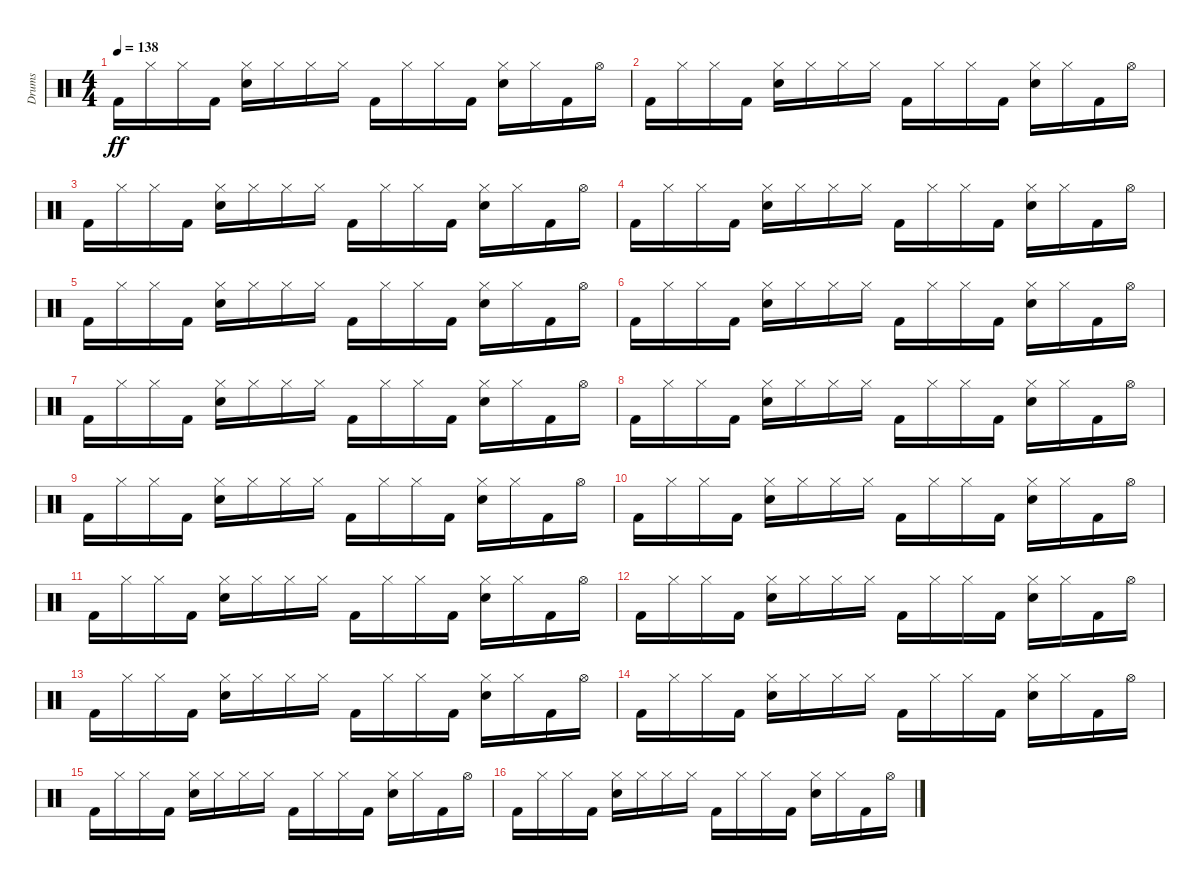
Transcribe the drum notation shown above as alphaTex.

\track ("Drums" "Drums") {instrument percussion}
\staff {score}
\articulation defaults
\ts (4 4)
\tempo 138
\clef neutral
\ks c "Kick (hit) 2".16{dy ff} "Hi-Hat (closed)".16 "Hi-Hat (closed)".16 "Kick (hit) 2".16
("Electric Snare (hit)" "Hi-Hat (closed)").16 "Hi-Hat (closed)".16 "Hi-Hat (closed)".16 "Hi-Hat (closed)".16 "Kick (hit) 2".16 "Hi-Hat (closed)".16 "Hi-Hat (closed)".16 "Kick (hit) 2".16 ("Electric Snare (hit)" "Hi-Hat (closed)").16 "Hi-Hat (closed)".16 "Kick (hit) 2".16 "Hi-Hat (open)".16 |
"Kick (hit) 2".16 "Hi-Hat (closed)".16 "Hi-Hat (closed)".16 "Kick (hit) 2".16 ("Electric Snare (hit)" "Hi-Hat (closed)").16 "Hi-Hat (closed)".16 "Hi-Hat (closed)".16 "Hi-Hat (closed)".16 "Kick (hit) 2".16 "Hi-Hat (closed)".16 "Hi-Hat (closed)".16 "Kick (hit) 2".16 ("Electric Snare (hit)" "Hi-Hat (closed)").16 "Hi-Hat (closed)".16 "Kick (hit) 2".16 "Hi-Hat (open)".16 |
"Kick (hit) 2".16 "Hi-Hat (closed)".16 "Hi-Hat (closed)".16 "Kick (hit) 2".16 ("Electric Snare (hit)" "Hi-Hat (closed)").16 "Hi-Hat (closed)".16 "Hi-Hat (closed)".16 "Hi-Hat (closed)".16 "Kick (hit) 2".16 "Hi-Hat (closed)".16 "Hi-Hat (closed)".16 "Kick (hit) 2".16 ("Electric Snare (hit)" "Hi-Hat (closed)").16 "Hi-Hat (closed)".16 "Kick (hit) 2".16 "Hi-Hat (open)".16 |
"Kick (hit) 2".16 "Hi-Hat (closed)".16 "Hi-Hat (closed)".16 "Kick (hit) 2".16 ("Electric Snare (hit)" "Hi-Hat (closed)").16 "Hi-Hat (closed)".16 "Hi-Hat (closed)".16 "Hi-Hat (closed)".16 "Kick (hit) 2".16 "Hi-Hat (closed)".16 "Hi-Hat (closed)".16 "Kick (hit) 2".16 ("Electric Snare (hit)" "Hi-Hat (closed)").16 "Hi-Hat (closed)".16 "Kick (hit) 2".16 "Hi-Hat (open)".16 |
"Kick (hit) 2".16 "Hi-Hat (closed)".16 "Hi-Hat (closed)".16 "Kick (hit) 2".16 ("Electric Snare (hit)" "Hi-Hat (closed)").16 "Hi-Hat (closed)".16 "Hi-Hat (closed)".16 "Hi-Hat (closed)".16 "Kick (hit) 2".16 "Hi-Hat (closed)".16 "Hi-Hat (closed)".16 "Kick (hit) 2".16 ("Electric Snare (hit)" "Hi-Hat (closed)").16 "Hi-Hat (closed)".16 "Kick (hit) 2".16 "Hi-Hat (open)".16 |
"Kick (hit) 2".16 "Hi-Hat (closed)".16 "Hi-Hat (closed)".16 "Kick (hit) 2".16 ("Electric Snare (hit)" "Hi-Hat (closed)").16 "Hi-Hat (closed)".16 "Hi-Hat (closed)".16 "Hi-Hat (closed)".16 "Kick (hit) 2".16 "Hi-Hat (closed)".16 "Hi-Hat (closed)".16 "Kick (hit) 2".16 ("Electric Snare (hit)" "Hi-Hat (closed)").16 "Hi-Hat (closed)".16 "Kick (hit) 2".16 "Hi-Hat (open)".16 |
"Kick (hit) 2".16 "Hi-Hat (closed)".16 "Hi-Hat (closed)".16 "Kick (hit) 2".16 ("Electric Snare (hit)" "Hi-Hat (closed)").16 "Hi-Hat (closed)".16 "Hi-Hat (closed)".16 "Hi-Hat (closed)".16 "Kick (hit) 2".16 "Hi-Hat (closed)".16 "Hi-Hat (closed)".16 "Kick (hit) 2".16 ("Electric Snare (hit)" "Hi-Hat (closed)").16 "Hi-Hat (closed)".16 "Kick (hit) 2".16 "Hi-Hat (open)".16 |
"Kick (hit) 2".16 "Hi-Hat (closed)".16 "Hi-Hat (closed)".16 "Kick (hit) 2".16 ("Electric Snare (hit)" "Hi-Hat (closed)").16 "Hi-Hat (closed)".16 "Hi-Hat (closed)".16 "Hi-Hat (closed)".16 "Kick (hit) 2".16 "Hi-Hat (closed)".16 "Hi-Hat (closed)".16 "Kick (hit) 2".16 ("Electric Snare (hit)" "Hi-Hat (closed)").16 "Hi-Hat (closed)".16 "Kick (hit) 2".16 "Hi-Hat (open)".16 |
"Kick (hit) 2".16 "Hi-Hat (closed)".16 "Hi-Hat (closed)".16 "Kick (hit) 2".16 ("Electric Snare (hit)" "Hi-Hat (closed)").16 "Hi-Hat (closed)".16 "Hi-Hat (closed)".16 "Hi-Hat (closed)".16 "Kick (hit) 2".16 "Hi-Hat (closed)".16 "Hi-Hat (closed)".16 "Kick (hit) 2".16 ("Electric Snare (hit)" "Hi-Hat (closed)").16 "Hi-Hat (closed)".16 "Kick (hit) 2".16 "Hi-Hat (open)".16 |
"Kick (hit) 2".16 "Hi-Hat (closed)".16 "Hi-Hat (closed)".16 "Kick (hit) 2".16 ("Electric Snare (hit)" "Hi-Hat (closed)").16 "Hi-Hat (closed)".16 "Hi-Hat (closed)".16 "Hi-Hat (closed)".16 "Kick (hit) 2".16 "Hi-Hat (closed)".16 "Hi-Hat (closed)".16 "Kick (hit) 2".16 ("Electric Snare (hit)" "Hi-Hat (closed)").16 "Hi-Hat (closed)".16 "Kick (hit) 2".16 "Hi-Hat (open)".16 |
"Kick (hit) 2".16 "Hi-Hat (closed)".16 "Hi-Hat (closed)".16 "Kick (hit) 2".16 ("Electric Snare (hit)" "Hi-Hat (closed)").16 "Hi-Hat (closed)".16 "Hi-Hat (closed)".16 "Hi-Hat (closed)".16 "Kick (hit) 2".16 "Hi-Hat (closed)".16 "Hi-Hat (closed)".16 "Kick (hit) 2".16 ("Electric Snare (hit)" "Hi-Hat (closed)").16 "Hi-Hat (closed)".16 "Kick (hit) 2".16 "Hi-Hat (open)".16 |
"Kick (hit) 2".16 "Hi-Hat (closed)".16 "Hi-Hat (closed)".16 "Kick (hit) 2".16 ("Electric Snare (hit)" "Hi-Hat (closed)").16 "Hi-Hat (closed)".16 "Hi-Hat (closed)".16 "Hi-Hat (closed)".16 "Kick (hit) 2".16 "Hi-Hat (closed)".16 "Hi-Hat (closed)".16 "Kick (hit) 2".16 ("Electric Snare (hit)" "Hi-Hat (closed)").16 "Hi-Hat (closed)".16 "Kick (hit) 2".16 "Hi-Hat (open)".16 |
"Kick (hit) 2".16 "Hi-Hat (closed)".16 "Hi-Hat (closed)".16 "Kick (hit) 2".16 ("Electric Snare (hit)" "Hi-Hat (closed)").16 "Hi-Hat (closed)".16 "Hi-Hat (closed)".16 "Hi-Hat (closed)".16 "Kick (hit) 2".16 "Hi-Hat (closed)".16 "Hi-Hat (closed)".16 "Kick (hit) 2".16 ("Electric Snare (hit)" "Hi-Hat (closed)").16 "Hi-Hat (closed)".16 "Kick (hit) 2".16 "Hi-Hat (open)".16 |
"Kick (hit) 2".16 "Hi-Hat (closed)".16 "Hi-Hat (closed)".16 "Kick (hit) 2".16 ("Electric Snare (hit)" "Hi-Hat (closed)").16 "Hi-Hat (closed)".16 "Hi-Hat (closed)".16 "Hi-Hat (closed)".16 "Kick (hit) 2".16 "Hi-Hat (closed)".16 "Hi-Hat (closed)".16 "Kick (hit) 2".16 ("Electric Snare (hit)" "Hi-Hat (closed)").16 "Hi-Hat (closed)".16 "Kick (hit) 2".16 "Hi-Hat (open)".16 |
"Kick (hit) 2".16 "Hi-Hat (closed)".16 "Hi-Hat (closed)".16 "Kick (hit) 2".16 ("Electric Snare (hit)" "Hi-Hat (closed)").16 "Hi-Hat (closed)".16 "Hi-Hat (closed)".16 "Hi-Hat (closed)".16 "Kick (hit) 2".16 "Hi-Hat (closed)".16 "Hi-Hat (closed)".16 "Kick (hit) 2".16 ("Electric Snare (hit)" "Hi-Hat (closed)").16 "Hi-Hat (closed)".16 "Kick (hit) 2".16 "Hi-Hat (open)".16 |
"Kick (hit) 2".16 "Hi-Hat (closed)".16 "Hi-Hat (closed)".16 "Kick (hit) 2".16 ("Electric Snare (hit)" "Hi-Hat (closed)").16 "Hi-Hat (closed)".16 "Hi-Hat (closed)".16 "Hi-Hat (closed)".16 "Kick (hit) 2".16 "Hi-Hat (closed)".16 "Hi-Hat (closed)".16 "Kick (hit) 2".16 ("Electric Snare (hit)" "Hi-Hat (closed)").16 "Hi-Hat (closed)".16 "Kick (hit) 2".16 "Hi-Hat (open)".16
